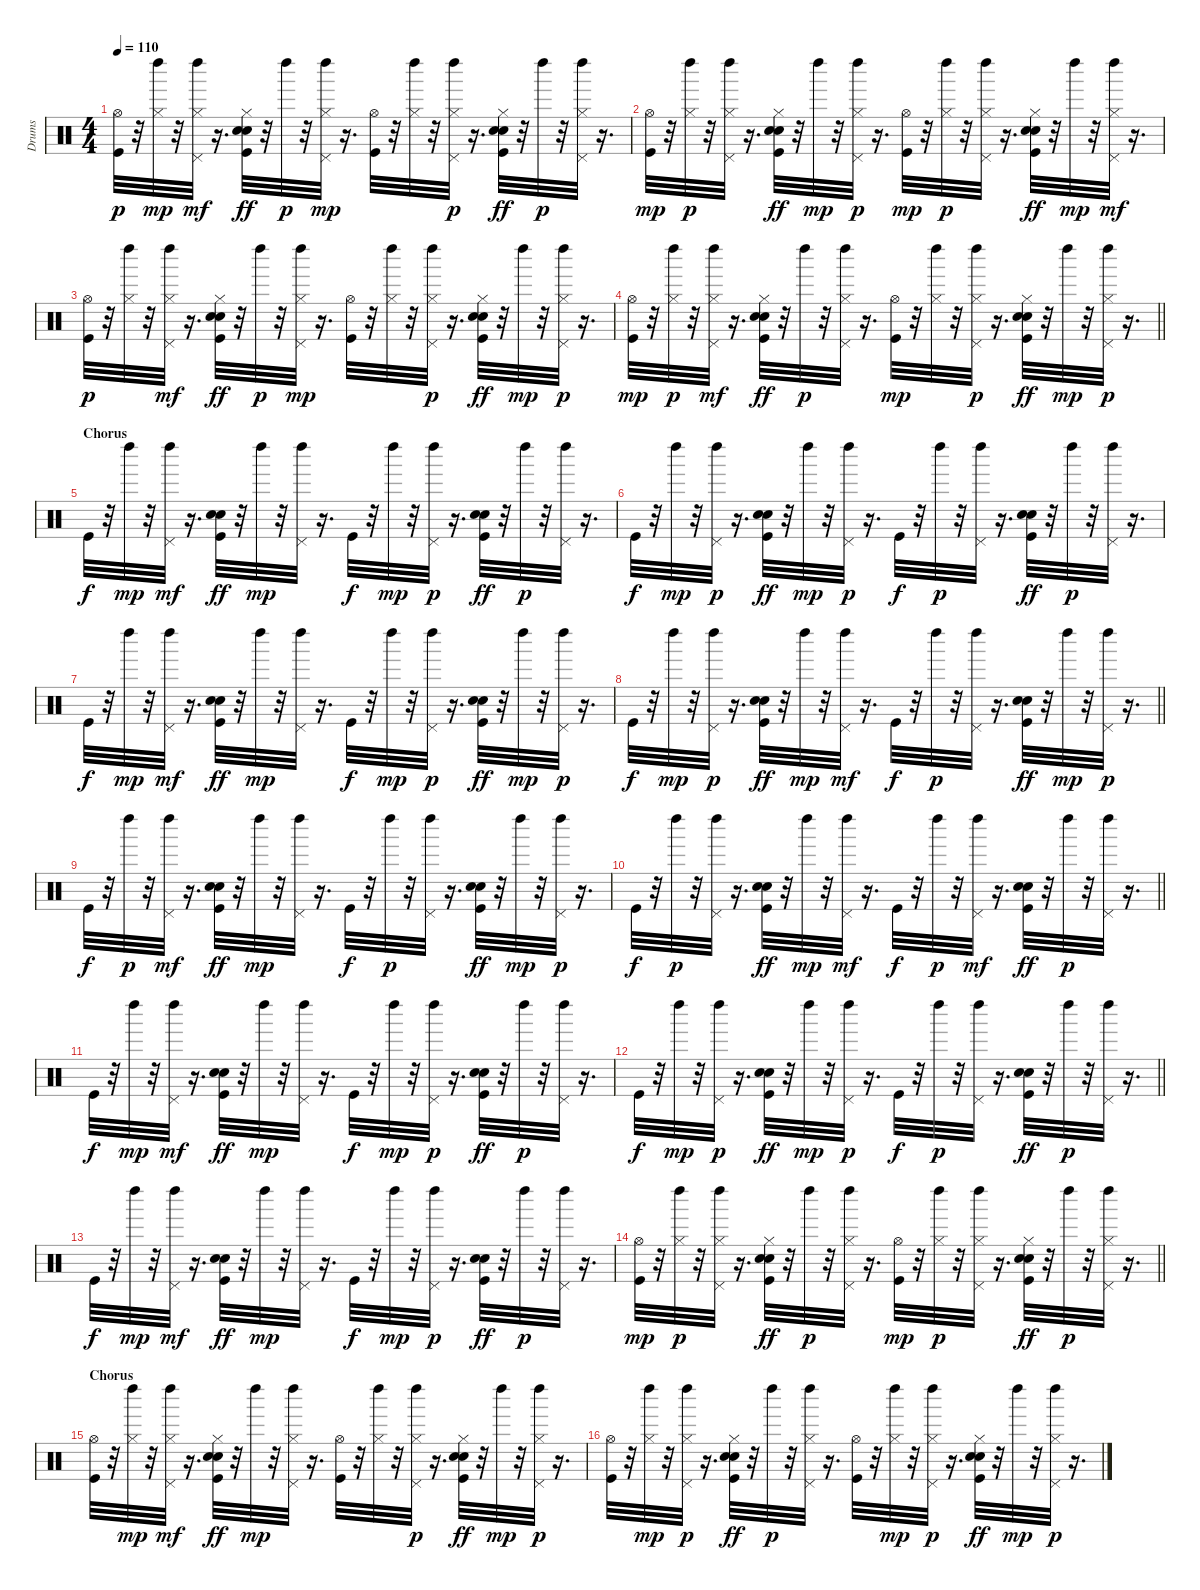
\track ("Drums" "Drums") {instrument percussion}
\staff {score}
\articulation defaults
\ts (4 4)
\tempo 110
\clef neutral
\ks c
("Kick (hit)" "Hi-Hat (open)").32{dy p} r.32 ("Hi-Hat (closed)" "Left Maraca (hit)").32{dy mp} r.32 ("Hi-Hat (closed)" "Pedal Hi-Hat (hit)" "Left Maraca (hit)").32{dy mf} r.16{d} ("Kick (hit)" "Snare (hit) 2" "Hand Clap (hit)" "Hi-Hat (closed)").32{dy ff} r.32 "Left Maraca (hit)".32{dy p} r.32 ("Hi-Hat (closed)" "Pedal Hi-Hat (hit)" "Left Maraca (hit)").32{dy mp} r.16{d} ("Kick (hit)" "Hi-Hat (open)").32 r.32 ("Hi-Hat (closed)" "Left Maraca (hit)").32 r.32 ("Hi-Hat (closed)" "Pedal Hi-Hat (hit)" "Left Maraca (hit)").32{dy p} r.16{d} ("Kick (hit)" "Snare (hit) 2" "Hand Clap (hit)" "Hi-Hat (closed)").32{dy ff} r.32 "Left Maraca (hit)".32{dy p} r.32 ("Hi-Hat (closed)" "Pedal Hi-Hat (hit)" "Left Maraca (hit)").32 r.16{d} |
("Kick (hit)" "Hi-Hat (open)").32{dy mp} r.32 ("Hi-Hat (closed)" "Left Maraca (hit)").32{dy p} r.32 ("Hi-Hat (closed)" "Pedal Hi-Hat (hit)" "Left Maraca (hit)").32 r.16{d} ("Kick (hit)" "Snare (hit) 2" "Hand Clap (hit)" "Hi-Hat (closed)").32{dy ff} r.32 "Left Maraca (hit)".32{dy mp} r.32 ("Hi-Hat (closed)" "Pedal Hi-Hat (hit)" "Left Maraca (hit)").32{dy p} r.16{d} ("Kick (hit)" "Hi-Hat (open)").32{dy mp} r.32 ("Hi-Hat (closed)" "Left Maraca (hit)").32{dy p} r.32 ("Hi-Hat (closed)" "Pedal Hi-Hat (hit)" "Left Maraca (hit)").32 r.16{d} ("Kick (hit)" "Snare (hit) 2" "Hand Clap (hit)" "Hi-Hat (closed)").32{dy ff} r.32 "Left Maraca (hit)".32{dy mp} r.32 ("Hi-Hat (closed)" "Pedal Hi-Hat (hit)" "Left Maraca (hit)").32{dy mf} r.16{d} |
("Kick (hit)" "Hi-Hat (open)").32{dy p} r.32 ("Hi-Hat (closed)" "Left Maraca (hit)").32 r.32 ("Hi-Hat (closed)" "Pedal Hi-Hat (hit)" "Left Maraca (hit)").32{dy mf} r.16{d} ("Kick (hit)" "Snare (hit) 2" "Hand Clap (hit)" "Hi-Hat (closed)").32{dy ff} r.32 "Left Maraca (hit)".32{dy p} r.32 ("Hi-Hat (closed)" "Pedal Hi-Hat (hit)" "Left Maraca (hit)").32{dy mp} r.16{d} ("Kick (hit)" "Hi-Hat (open)").32 r.32 ("Hi-Hat (closed)" "Left Maraca (hit)").32 r.32 ("Hi-Hat (closed)" "Pedal Hi-Hat (hit)" "Left Maraca (hit)").32{dy p} r.16{d} ("Kick (hit)" "Snare (hit) 2" "Hand Clap (hit)" "Hi-Hat (closed)").32{dy ff} r.32 "Left Maraca (hit)".32{dy mp} r.32 ("Hi-Hat (closed)" "Pedal Hi-Hat (hit)" "Left Maraca (hit)").32{dy p} r.16{d} |
\barLineRight lightlight
("Kick (hit)" "Hi-Hat (open)").32{dy mp} r.32 ("Hi-Hat (closed)" "Left Maraca (hit)").32{dy p} r.32 ("Hi-Hat (closed)" "Pedal Hi-Hat (hit)" "Left Maraca (hit)").32{dy mf} r.16{d} ("Kick (hit)" "Snare (hit) 2" "Hand Clap (hit)" "Hi-Hat (closed)").32{dy ff} r.32 "Left Maraca (hit)".32{dy p} r.32 ("Hi-Hat (closed)" "Pedal Hi-Hat (hit)" "Left Maraca (hit)").32 r.16{d} ("Kick (hit)" "Hi-Hat (open)").32{dy mp} r.32 ("Hi-Hat (closed)" "Left Maraca (hit)").32 r.32 ("Hi-Hat (closed)" "Pedal Hi-Hat (hit)" "Left Maraca (hit)").32{dy p} r.16{d} ("Kick (hit)" "Snare (hit) 2" "Hand Clap (hit)" "Hi-Hat (closed)").32{dy ff} r.32 "Left Maraca (hit)".32{dy mp} r.32 ("Hi-Hat (closed)" "Pedal Hi-Hat (hit)" "Left Maraca (hit)").32{dy p} r.16{d} |
\section ("" "Chorus")
"Kick (hit)".32{dy f} r.32 "Left Maraca (hit)".32{dy mp} r.32 ("Pedal Hi-Hat (hit)" "Left Maraca (hit)").32{dy mf} r.16{d} ("Kick (hit)" "Snare (hit) 2" "Hand Clap (hit)").32{dy ff} r.32 "Left Maraca (hit)".32{dy mp} r.32 ("Pedal Hi-Hat (hit)" "Left Maraca (hit)").32 r.16{d} "Kick (hit)".32{dy f} r.32 "Left Maraca (hit)".32{dy mp} r.32 ("Pedal Hi-Hat (hit)" "Left Maraca (hit)").32{dy p} r.16{d} ("Kick (hit)" "Snare (hit) 2" "Hand Clap (hit)").32{dy ff} r.32 "Left Maraca (hit)".32{dy p} r.32 ("Pedal Hi-Hat (hit)" "Left Maraca (hit)").32 r.16{d} |
"Kick (hit)".32{dy f} r.32 "Left Maraca (hit)".32{dy mp} r.32 ("Pedal Hi-Hat (hit)" "Left Maraca (hit)").32{dy p} r.16{d} ("Kick (hit)" "Snare (hit) 2" "Hand Clap (hit)").32{dy ff} r.32 "Left Maraca (hit)".32{dy mp} r.32 ("Pedal Hi-Hat (hit)" "Left Maraca (hit)").32{dy p} r.16{d} "Kick (hit)".32{dy f} r.32 "Left Maraca (hit)".32{dy p} r.32 ("Pedal Hi-Hat (hit)" "Left Maraca (hit)").32 r.16{d} ("Kick (hit)" "Snare (hit) 2" "Hand Clap (hit)").32{dy ff} r.32 "Left Maraca (hit)".32{dy p} r.32 ("Pedal Hi-Hat (hit)" "Left Maraca (hit)").32 r.16{d} |
"Kick (hit)".32{dy f} r.32 "Left Maraca (hit)".32{dy mp} r.32 ("Pedal Hi-Hat (hit)" "Left Maraca (hit)").32{dy mf} r.16{d} ("Kick (hit)" "Snare (hit) 2" "Hand Clap (hit)").32{dy ff} r.32 "Left Maraca (hit)".32{dy mp} r.32 ("Pedal Hi-Hat (hit)" "Left Maraca (hit)").32 r.16{d} "Kick (hit)".32{dy f} r.32 "Left Maraca (hit)".32{dy mp} r.32 ("Pedal Hi-Hat (hit)" "Left Maraca (hit)").32{dy p} r.16{d} ("Kick (hit)" "Snare (hit) 2" "Hand Clap (hit)").32{dy ff} r.32 "Left Maraca (hit)".32{dy mp} r.32 ("Pedal Hi-Hat (hit)" "Left Maraca (hit)").32{dy p} r.16{d} |
\barLineRight lightlight "Kick (hit)".32{dy f}
r.32 "Left Maraca (hit)".32{dy mp} r.32 ("Pedal Hi-Hat (hit)" "Left Maraca (hit)").32{dy p} r.16{d} ("Kick (hit)" "Snare (hit) 2" "Hand Clap (hit)").32{dy ff} r.32 "Left Maraca (hit)".32{dy mp} r.32 ("Pedal Hi-Hat (hit)" "Left Maraca (hit)").32{dy mf} r.16{d} "Kick (hit)".32{dy f} r.32 "Left Maraca (hit)".32{dy p} r.32 ("Pedal Hi-Hat (hit)" "Left Maraca (hit)").32 r.16{d} ("Kick (hit)" "Snare (hit) 2" "Hand Clap (hit)").32{dy ff} r.32 "Left Maraca (hit)".32{dy mp} r.32 ("Pedal Hi-Hat (hit)" "Left Maraca (hit)").32{dy p} r.16{d} |
"Kick (hit)".32{dy f} r.32 "Left Maraca (hit)".32{dy p} r.32 ("Pedal Hi-Hat (hit)" "Left Maraca (hit)").32{dy mf} r.16{d} ("Kick (hit)" "Snare (hit) 2" "Hand Clap (hit)").32{dy ff} r.32 "Left Maraca (hit)".32{dy mp} r.32 ("Pedal Hi-Hat (hit)" "Left Maraca (hit)").32 r.16{d} "Kick (hit)".32{dy f} r.32 "Left Maraca (hit)".32{dy p} r.32 ("Pedal Hi-Hat (hit)" "Left Maraca (hit)").32 r.16{d} ("Kick (hit)" "Snare (hit) 2" "Hand Clap (hit)").32{dy ff} r.32 "Left Maraca (hit)".32{dy mp} r.32 ("Pedal Hi-Hat (hit)" "Left Maraca (hit)").32{dy p} r.16{d} |
\barLineRight lightlight "Kick (hit)".32{dy f}
r.32 "Left Maraca (hit)".32{dy p} r.32 ("Pedal Hi-Hat (hit)" "Left Maraca (hit)").32 r.16{d} ("Kick (hit)" "Snare (hit) 2" "Hand Clap (hit)").32{dy ff} r.32 "Left Maraca (hit)".32{dy mp} r.32 ("Pedal Hi-Hat (hit)" "Left Maraca (hit)").32{dy mf} r.16{d} "Kick (hit)".32{dy f} r.32 "Left Maraca (hit)".32{dy p} r.32 ("Pedal Hi-Hat (hit)" "Left Maraca (hit)").32{dy mf} r.16{d} ("Kick (hit)" "Snare (hit) 2" "Hand Clap (hit)").32{dy ff} r.32 "Left Maraca (hit)".32{dy p} r.32 ("Pedal Hi-Hat (hit)" "Left Maraca (hit)").32 r.16{d} |
"Kick (hit)".32{dy f} r.32 "Left Maraca (hit)".32{dy mp} r.32 ("Pedal Hi-Hat (hit)" "Left Maraca (hit)").32{dy mf} r.16{d} ("Kick (hit)" "Snare (hit) 2" "Hand Clap (hit)").32{dy ff} r.32 "Left Maraca (hit)".32{dy mp} r.32 ("Pedal Hi-Hat (hit)" "Left Maraca (hit)").32 r.16{d} "Kick (hit)".32{dy f} r.32 "Left Maraca (hit)".32{dy mp} r.32 ("Pedal Hi-Hat (hit)" "Left Maraca (hit)").32{dy p} r.16{d} ("Kick (hit)" "Snare (hit) 2" "Hand Clap (hit)").32{dy ff} r.32 "Left Maraca (hit)".32{dy p} r.32 ("Pedal Hi-Hat (hit)" "Left Maraca (hit)").32 r.16{d} |
\barLineRight lightlight "Kick (hit)".32{dy f}
r.32 "Left Maraca (hit)".32{dy mp} r.32 ("Pedal Hi-Hat (hit)" "Left Maraca (hit)").32{dy p} r.16{d} ("Kick (hit)" "Snare (hit) 2" "Hand Clap (hit)").32{dy ff} r.32 "Left Maraca (hit)".32{dy mp} r.32 ("Pedal Hi-Hat (hit)" "Left Maraca (hit)").32{dy p} r.16{d} "Kick (hit)".32{dy f} r.32 "Left Maraca (hit)".32{dy p} r.32 ("Pedal Hi-Hat (hit)" "Left Maraca (hit)").32 r.16{d} ("Kick (hit)" "Snare (hit) 2" "Hand Clap (hit)").32{dy ff} r.32 "Left Maraca (hit)".32{dy p} r.32 ("Pedal Hi-Hat (hit)" "Left Maraca (hit)").32 r.16{d} |
"Kick (hit)".32{dy f} r.32 "Left Maraca (hit)".32{dy mp} r.32 ("Pedal Hi-Hat (hit)" "Left Maraca (hit)").32{dy mf} r.16{d} ("Kick (hit)" "Snare (hit) 2" "Hand Clap (hit)").32{dy ff} r.32 "Left Maraca (hit)".32{dy mp} r.32 ("Pedal Hi-Hat (hit)" "Left Maraca (hit)").32 r.16{d} "Kick (hit)".32{dy f} r.32 "Left Maraca (hit)".32{dy mp} r.32 ("Pedal Hi-Hat (hit)" "Left Maraca (hit)").32{dy p} r.16{d} ("Kick (hit)" "Snare (hit) 2" "Hand Clap (hit)").32{dy ff} r.32 "Left Maraca (hit)".32{dy p} r.32 ("Pedal Hi-Hat (hit)" "Left Maraca (hit)").32 r.16{d} |
\barLineRight lightlight
("Kick (hit)" "Hi-Hat (open)").32{dy mp} r.32 ("Hi-Hat (closed)" "Left Maraca (hit)").32{dy p} r.32 ("Hi-Hat (closed)" "Pedal Hi-Hat (hit)" "Left Maraca (hit)").32 r.16{d} ("Kick (hit)" "Snare (hit) 2" "Hand Clap (hit)" "Hi-Hat (closed)").32{dy ff} r.32 "Left Maraca (hit)".32{dy p} r.32 ("Hi-Hat (closed)" "Pedal Hi-Hat (hit)" "Left Maraca (hit)").32 r.16{d} ("Kick (hit)" "Hi-Hat (open)").32{dy mp} r.32 ("Hi-Hat (closed)" "Left Maraca (hit)").32{dy p} r.32 ("Hi-Hat (closed)" "Pedal Hi-Hat (hit)" "Left Maraca (hit)").32 r.16{d} ("Kick (hit)" "Snare (hit) 2" "Hand Clap (hit)" "Hi-Hat (closed)").32{dy ff} r.32 "Left Maraca (hit)".32{dy p} r.32 ("Hi-Hat (closed)" "Pedal Hi-Hat (hit)" "Left Maraca (hit)").32 r.16{d} |
\section ("" "Chorus")
("Kick (hit)" "Hi-Hat (open)").32 r.32 ("Hi-Hat (closed)" "Left Maraca (hit)").32{dy mp} r.32 ("Hi-Hat (closed)" "Pedal Hi-Hat (hit)" "Left Maraca (hit)").32{dy mf} r.16{d} ("Kick (hit)" "Snare (hit) 2" "Hand Clap (hit)" "Hi-Hat (closed)").32{dy ff} r.32 "Left Maraca (hit)".32{dy mp} r.32 ("Hi-Hat (closed)" "Pedal Hi-Hat (hit)" "Left Maraca (hit)").32 r.16{d} ("Kick (hit)" "Hi-Hat (open)").32 r.32 ("Hi-Hat (closed)" "Left Maraca (hit)").32 r.32 ("Hi-Hat (closed)" "Pedal Hi-Hat (hit)" "Left Maraca (hit)").32{dy p} r.16{d} ("Kick (hit)" "Snare (hit) 2" "Hand Clap (hit)" "Hi-Hat (closed)").32{dy ff} r.32 "Left Maraca (hit)".32{dy mp} r.32 ("Hi-Hat (closed)" "Pedal Hi-Hat (hit)" "Left Maraca (hit)").32{dy p} r.16{d} |
("Kick (hit)" "Hi-Hat (open)").32 r.32 ("Hi-Hat (closed)" "Left Maraca (hit)").32{dy mp} r.32 ("Hi-Hat (closed)" "Pedal Hi-Hat (hit)" "Left Maraca (hit)").32{dy p} r.16{d} ("Kick (hit)" "Snare (hit) 2" "Hand Clap (hit)" "Hi-Hat (closed)").32{dy ff} r.32 "Left Maraca (hit)".32{dy p} r.32 ("Hi-Hat (closed)" "Pedal Hi-Hat (hit)" "Left Maraca (hit)").32 r.16{d} ("Kick (hit)" "Hi-Hat (open)").32 r.32 ("Hi-Hat (closed)" "Left Maraca (hit)").32{dy mp} r.32 ("Hi-Hat (closed)" "Pedal Hi-Hat (hit)" "Left Maraca (hit)").32{dy p} r.16{d} ("Kick (hit)" "Snare (hit) 2" "Hand Clap (hit)" "Hi-Hat (closed)").32{dy ff} r.32 "Left Maraca (hit)".32{dy mp} r.32 ("Hi-Hat (closed)" "Pedal Hi-Hat (hit)" "Left Maraca (hit)").32{dy p} r.16{d}
